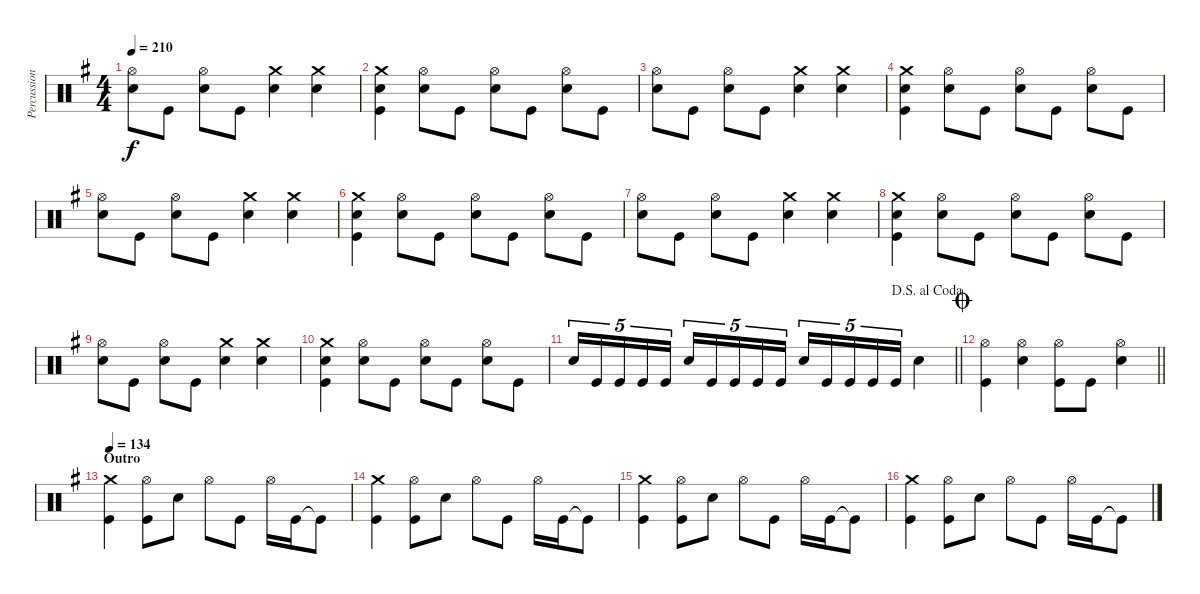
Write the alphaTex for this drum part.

\track ("Percussion" "Percussion") {instrument percussion}
\staff {score}
\articulation defaults
\ts (4 4)
\tempo 210
\clef neutral
\ks g
("Hi-Hat (open)" "Snare (hit) 2").8{dy f} "Kick (hit)".8 ("Hi-Hat (open)" "Snare (hit) 2").8 "Kick (hit)".8 ("Crash medium (hit)" "Snare (hit) 2").4 ("Crash medium (hit)" "Snare (hit) 2").4 |
("Crash medium (hit)" "Snare (hit) 2" "Kick (hit)").4 ("Hi-Hat (open)" "Snare (hit) 2").8 "Kick (hit)".8 ("Hi-Hat (open)" "Snare (hit) 2").8 "Kick (hit)".8 ("Hi-Hat (open)" "Snare (hit) 2").8 "Kick (hit)".8 |
("Hi-Hat (open)" "Snare (hit) 2").8 "Kick (hit)".8 ("Hi-Hat (open)" "Snare (hit) 2").8 "Kick (hit)".8 ("Crash medium (hit)" "Snare (hit) 2").4 ("Crash medium (hit)" "Snare (hit) 2").4 |
("Crash medium (hit)" "Snare (hit) 2" "Kick (hit)").4 ("Hi-Hat (open)" "Snare (hit) 2").8 "Kick (hit)".8 ("Hi-Hat (open)" "Snare (hit) 2").8 "Kick (hit)".8 ("Hi-Hat (open)" "Snare (hit) 2").8 "Kick (hit)".8 |
("Hi-Hat (open)" "Snare (hit) 2").8 "Kick (hit)".8 ("Hi-Hat (open)" "Snare (hit) 2").8 "Kick (hit)".8 ("Crash medium (hit)" "Snare (hit) 2").4 ("Crash medium (hit)" "Snare (hit) 2").4 |
("Crash medium (hit)" "Snare (hit) 2" "Kick (hit)").4 ("Hi-Hat (open)" "Snare (hit) 2").8 "Kick (hit)".8 ("Hi-Hat (open)" "Snare (hit) 2").8 "Kick (hit)".8 ("Hi-Hat (open)" "Snare (hit) 2").8 "Kick (hit)".8 |
("Hi-Hat (open)" "Snare (hit) 2").8 "Kick (hit)".8 ("Hi-Hat (open)" "Snare (hit) 2").8 "Kick (hit)".8 ("Crash medium (hit)" "Snare (hit) 2").4 ("Crash medium (hit)" "Snare (hit) 2").4 |
("Crash medium (hit)" "Snare (hit) 2" "Kick (hit)").4 ("Hi-Hat (open)" "Snare (hit) 2").8 "Kick (hit)".8 ("Hi-Hat (open)" "Snare (hit) 2").8 "Kick (hit)".8 ("Hi-Hat (open)" "Snare (hit) 2").8 "Kick (hit)".8 |
("Hi-Hat (open)" "Snare (hit) 2").8 "Kick (hit)".8 ("Hi-Hat (open)" "Snare (hit) 2").8 "Kick (hit)".8 ("Crash medium (hit)" "Snare (hit) 2").4 ("Crash medium (hit)" "Snare (hit) 2").4 |
("Crash medium (hit)" "Snare (hit) 2" "Kick (hit)").4 ("Hi-Hat (open)" "Snare (hit) 2").8 "Kick (hit)".8 ("Hi-Hat (open)" "Snare (hit) 2").8 "Kick (hit)".8 ("Hi-Hat (open)" "Snare (hit) 2").8 "Kick (hit)".8 |
\jump dalsegnoalcoda
\barLineRight lightlight "Snare (hit) 2".16{tu (5 4)} "Kick (hit)".16{tu (5 4)} "Kick (hit)".16{tu (5 4)} "Kick (hit)".16{tu (5 4)} "Kick (hit)".16{tu (5 4)} "Snare (hit) 2".16{tu (5 4)} "Kick (hit)".16{tu (5 4)} "Kick (hit)".16{tu (5 4)} "Kick (hit)".16{tu (5 4)} "Kick (hit)".16{tu (5 4)} "Snare (hit) 2".16{tu (5 4)} "Kick (hit)".16{tu (5 4)} "Kick (hit)".16{tu (5 4)} "Kick (hit)".16{tu (5 4)} "Kick (hit)".16{tu (5 4)} "Snare (hit) 2".4
|
\jump coda
\barLineRight lightlight
("Hi-Hat (open)" "Kick (hit)").4 ("Hi-Hat (open)" "Snare (hit) 2").4 ("Hi-Hat (open)" "Kick (hit)").8 "Kick (hit)".8 ("Hi-Hat (open)" "Snare (hit) 2").4 |
\section ("" "Outro")
\tempo 134
("Crash medium (hit)" "Kick (hit)").4 ("Hi-Hat (open)" "Kick (hit)").8 "Snare (hit) 2".8 "Hi-Hat (open)".8 "Kick (hit)".8 "Hi-Hat (open)".16 "Kick (hit)".16 "Kick (hit)"{t}.8 |
("Crash medium (hit)" "Kick (hit)").4 ("Hi-Hat (open)" "Kick (hit)").8 "Snare (hit) 2".8 "Hi-Hat (open)".8 "Kick (hit)".8 "Hi-Hat (open)".16 "Kick (hit)".16 "Kick (hit)"{t}.8 |
("Crash medium (hit)" "Kick (hit)").4 ("Hi-Hat (open)" "Kick (hit)").8 "Snare (hit) 2".8 "Hi-Hat (open)".8 "Kick (hit)".8 "Hi-Hat (open)".16 "Kick (hit)".16 "Kick (hit)"{t}.8 |
("Crash medium (hit)" "Kick (hit)").4 ("Hi-Hat (open)" "Kick (hit)").8 "Snare (hit) 2".8 "Hi-Hat (open)".8 "Kick (hit)".8 "Hi-Hat (open)".16 "Kick (hit)".16 "Kick (hit)"{t}.8
